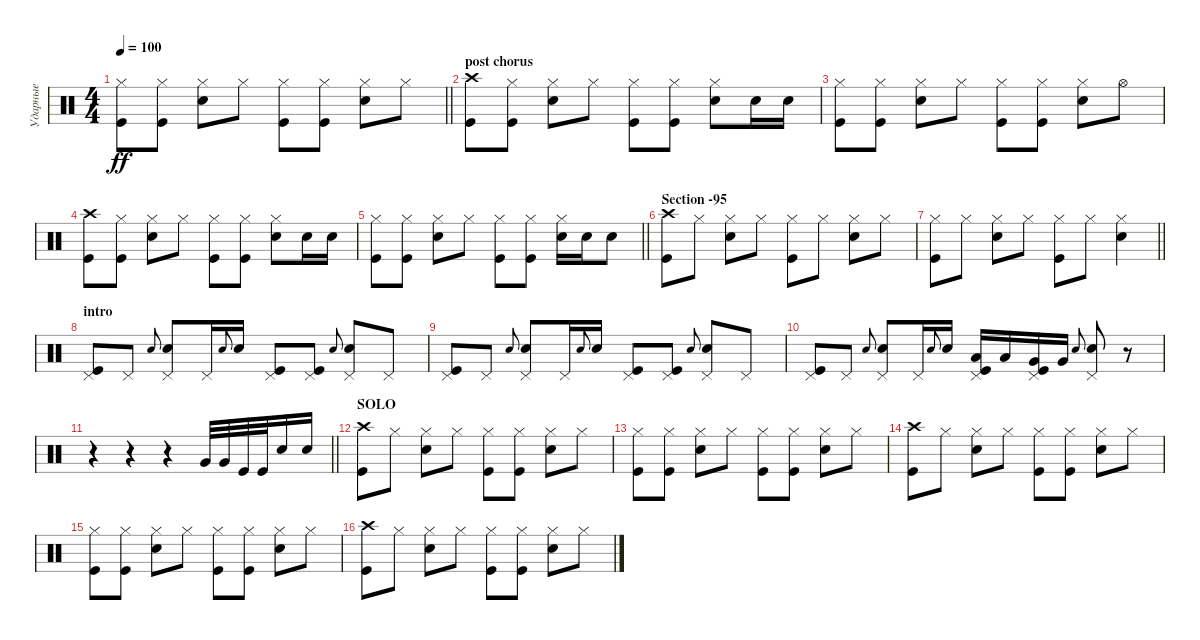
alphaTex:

\track ("Ударные" "Ударные") {instrument percussion}
\staff {score}
\articulation defaults
\ts (4 4)
\tempo 100
\clef neutral
\barLineRight lightlight
\ks c
("Hi-Hat (closed)" "Kick (hit)").8{dy ff} ("Hi-Hat (closed)" "Kick (hit)").8 ("Hi-Hat (closed)" "Electric Snare (hit)").8 "Hi-Hat (closed)".8 ("Hi-Hat (closed)" "Kick (hit)").8 ("Hi-Hat (closed)" "Kick (hit)").8 ("Hi-Hat (closed)" "Electric Snare (hit)").8 "Hi-Hat (closed)".8 |
\section ("" "post chorus")
("Crash high (hit)" "Kick (hit)").8 ("Hi-Hat (closed)" "Kick (hit)").8 ("Hi-Hat (closed)" "Electric Snare (hit)").8 "Hi-Hat (closed)".8 ("Hi-Hat (closed)" "Kick (hit)").8 ("Hi-Hat (closed)" "Kick (hit)").8 ("Hi-Hat (closed)" "Electric Snare (hit)").8 "Electric Snare (hit)".16 "Electric Snare (hit)".16 |
("Hi-Hat (closed)" "Kick (hit)").8 ("Hi-Hat (closed)" "Kick (hit)").8 ("Hi-Hat (closed)" "Electric Snare (hit)").8 "Hi-Hat (closed)".8 ("Hi-Hat (closed)" "Kick (hit)").8 ("Hi-Hat (closed)" "Kick (hit)").8 ("Hi-Hat (closed)" "Electric Snare (hit)").8 "Hi-Hat (open)".8 |
("Crash high (hit)" "Kick (hit)").8 ("Hi-Hat (closed)" "Kick (hit)").8 ("Hi-Hat (closed)" "Electric Snare (hit)").8 "Hi-Hat (closed)".8 ("Hi-Hat (closed)" "Kick (hit)").8 ("Hi-Hat (closed)" "Kick (hit)").8 ("Hi-Hat (closed)" "Electric Snare (hit)").8 "Electric Snare (hit)".16 "Electric Snare (hit)".16 |
\barLineRight lightlight
("Hi-Hat (closed)" "Kick (hit)").8 ("Hi-Hat (closed)" "Kick (hit)").8 ("Hi-Hat (closed)" "Electric Snare (hit)").8 "Hi-Hat (closed)".8 ("Hi-Hat (closed)" "Kick (hit)").8 ("Hi-Hat (closed)" "Kick (hit)").8 ("Hi-Hat (closed)" "Electric Snare (hit)").16 "Electric Snare (hit)".16 "Electric Snare (hit)".8 |
\section ("" "Section -95")
("Crash high (hit)" "Kick (hit)").8 "Hi-Hat (closed)".8 ("Hi-Hat (closed)" "Electric Snare (hit)").8 "Hi-Hat (closed)".8 ("Hi-Hat (closed)" "Kick (hit)").8 "Hi-Hat (closed)".8 ("Hi-Hat (closed)" "Electric Snare (hit)").8 "Hi-Hat (closed)".8 |
\barLineRight lightlight
("Hi-Hat (closed)" "Kick (hit)").8 "Hi-Hat (closed)".8 ("Hi-Hat (closed)" "Electric Snare (hit)").8 "Hi-Hat (closed)".8 ("Hi-Hat (closed)" "Kick (hit)").8 "Hi-Hat (closed)".8 ("Hi-Hat (closed)" "Electric Snare (hit)").4 |
\section ("" "intro")
("Pedal Hi-Hat (hit)" "Kick (hit)").8 "Pedal Hi-Hat (hit)".8 "Electric Snare (hit)".8{gr onbeat} ("Pedal Hi-Hat (hit)" "Electric Snare (hit)").8 "Pedal Hi-Hat (hit)".16 "Electric Snare (hit)".8{gr onbeat} "Electric Snare (hit)".16 ("Pedal Hi-Hat (hit)" "Kick (hit)").8 ("Pedal Hi-Hat (hit)" "Kick (hit)").8 "Electric Snare (hit)".8{gr onbeat} ("Pedal Hi-Hat (hit)" "Electric Snare (hit)").8 "Pedal Hi-Hat (hit)".8 |
("Pedal Hi-Hat (hit)" "Kick (hit)").8 "Pedal Hi-Hat (hit)".8 "Electric Snare (hit)".8{gr onbeat} ("Pedal Hi-Hat (hit)" "Electric Snare (hit)").8 "Pedal Hi-Hat (hit)".16 "Electric Snare (hit)".8{gr onbeat} "Electric Snare (hit)".16 ("Pedal Hi-Hat (hit)" "Kick (hit)").8 ("Pedal Hi-Hat (hit)" "Kick (hit)").8 "Electric Snare (hit)".8{gr onbeat} ("Pedal Hi-Hat (hit)" "Electric Snare (hit)").8 "Pedal Hi-Hat (hit)".8 |
("Pedal Hi-Hat (hit)" "Kick (hit)").8 "Pedal Hi-Hat (hit)".8 "Electric Snare (hit)".8{gr onbeat} ("Pedal Hi-Hat (hit)" "Electric Snare (hit)").8 "Pedal Hi-Hat (hit)".16 "Electric Snare (hit)".8{gr onbeat} "Electric Snare (hit)".16 ("Pedal Hi-Hat (hit)" "Low Tom (hit)" "Kick (hit)").16 "Low Tom (hit)".16 ("Pedal Hi-Hat (hit)" "Very Low Tom (hit)" "Kick (hit)").16 "Very Low Tom (hit)".16 "Electric Snare (hit)".8{gr onbeat} ("Pedal Hi-Hat (hit)" "Electric Snare (hit)").8 r.8 |
\barLineRight lightlight
r.4 r.4 r.4 "Very Low Tom (hit)".32 "Very Low Tom (hit)".32 "Kick (hit)".32 "Kick (hit)".32 "Electric Snare (hit)".16 "Electric Snare (hit)".16 |
\section ("" "SOLO")
("Crash high (hit)" "Kick (hit)").8 "Hi-Hat (closed)".8 ("Hi-Hat (closed)" "Electric Snare (hit)").8 "Hi-Hat (closed)".8 ("Hi-Hat (closed)" "Kick (hit)").8 ("Hi-Hat (closed)" "Kick (hit)").8 ("Hi-Hat (closed)" "Electric Snare (hit)").8 "Hi-Hat (closed)".8 |
("Hi-Hat (closed)" "Kick (hit)").8 ("Hi-Hat (closed)" "Kick (hit)").8 ("Hi-Hat (closed)" "Electric Snare (hit)").8 "Hi-Hat (closed)".8 ("Hi-Hat (closed)" "Kick (hit)").8 ("Hi-Hat (closed)" "Kick (hit)").8 ("Hi-Hat (closed)" "Electric Snare (hit)").8 "Hi-Hat (closed)".8 |
("Crash high (hit)" "Kick (hit)").8 "Hi-Hat (closed)".8 ("Hi-Hat (closed)" "Electric Snare (hit)").8 "Hi-Hat (closed)".8 ("Hi-Hat (closed)" "Kick (hit)").8 ("Hi-Hat (closed)" "Kick (hit)").8 ("Hi-Hat (closed)" "Electric Snare (hit)").8 "Hi-Hat (closed)".8 |
("Hi-Hat (closed)" "Kick (hit)").8 ("Hi-Hat (closed)" "Kick (hit)").8 ("Hi-Hat (closed)" "Electric Snare (hit)").8 "Hi-Hat (closed)".8 ("Hi-Hat (closed)" "Kick (hit)").8 ("Hi-Hat (closed)" "Kick (hit)").8 ("Hi-Hat (closed)" "Electric Snare (hit)").8 "Hi-Hat (closed)".8 |
("Crash high (hit)" "Kick (hit)").8 "Hi-Hat (closed)".8 ("Hi-Hat (closed)" "Electric Snare (hit)").8 "Hi-Hat (closed)".8 ("Hi-Hat (closed)" "Kick (hit)").8 ("Hi-Hat (closed)" "Kick (hit)").8 ("Hi-Hat (closed)" "Electric Snare (hit)").8 "Hi-Hat (closed)".8
